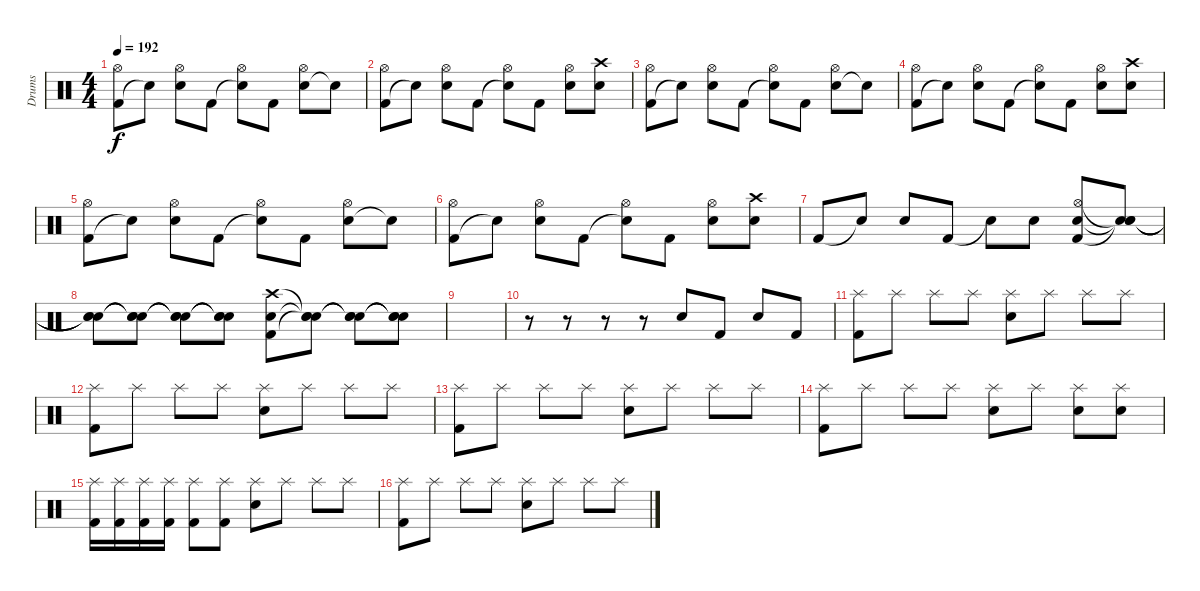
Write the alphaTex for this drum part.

\track ("Drums" "Drums") {instrument percussion}
\staff {score}
\articulation defaults
\ts (4 4)
\tempo 192
\clef neutral
\ks c
("Kick (hit) 2" "Hi-Hat (open)").8{dy f} "Snare (hit)"{t}.8 ("Electric Snare (hit)" "Hi-Hat (open)").8 "Kick (hit) 2".8 ("Snare (hit)"{t} "Hi-Hat (open)").8 "Kick (hit) 2".8 ("Electric Snare (hit)" "Hi-Hat (open)").8 "Electric Snare (hit)"{t}.8 |
("Kick (hit) 2" "Hi-Hat (open)").8 "Snare (hit)"{t}.8 ("Electric Snare (hit)" "Hi-Hat (open)").8 "Kick (hit) 2".8 ("Snare (hit)"{t} "Hi-Hat (open)").8 "Kick (hit) 2".8 ("Electric Snare (hit)" "Hi-Hat (open)").8 ("Electric Snare (hit)" "Crash high (hit)").8 |
("Kick (hit) 2" "Hi-Hat (open)").8 "Snare (hit)"{t}.8 ("Electric Snare (hit)" "Hi-Hat (open)").8 "Kick (hit) 2".8 ("Snare (hit)"{t} "Hi-Hat (open)").8 "Kick (hit) 2".8 ("Electric Snare (hit)" "Hi-Hat (open)").8 "Electric Snare (hit)"{t}.8 |
("Kick (hit) 2" "Hi-Hat (open)").8 "Snare (hit)"{t}.8 ("Electric Snare (hit)" "Hi-Hat (open)").8 "Kick (hit) 2".8 ("Snare (hit)"{t} "Hi-Hat (open)").8 "Kick (hit) 2".8 ("Electric Snare (hit)" "Hi-Hat (open)").8 ("Electric Snare (hit)" "Crash high (hit)").8 |
("Kick (hit) 2" "Hi-Hat (open)").8 "Snare (hit)"{t}.8 ("Electric Snare (hit)" "Hi-Hat (open)").8 "Kick (hit) 2".8 ("Snare (hit)"{t} "Hi-Hat (open)").8 "Kick (hit) 2".8 ("Electric Snare (hit)" "Hi-Hat (open)").8 "Electric Snare (hit)"{t}.8 |
("Kick (hit) 2" "Hi-Hat (open)").8 "Snare (hit)"{t}.8 ("Electric Snare (hit)" "Hi-Hat (open)").8 "Kick (hit) 2".8 ("Snare (hit)"{t} "Hi-Hat (open)").8 "Kick (hit) 2".8 ("Electric Snare (hit)" "Hi-Hat (open)").8 ("Electric Snare (hit)" "Crash high (hit)").8 |
"Kick (hit) 2".8 "Snare (hit)"{t}.8 "Electric Snare (hit)".8 "Kick (hit) 2".8 "Snare (hit)"{t}.8 "Electric Snare (hit)".8 ("Kick (hit) 2" "Snare (hit) 2" "Hi-Hat (open)").8 ("Snare (hit)"{t} "Snare (hit)"{t} "Snare (hit)"{t}).8 |
("Snare (hit)"{t} "Snare (hit)"{t} "Snare (hit)"{t}).8 ("Snare (hit)"{t} "Snare (hit)"{t} "Snare (hit)"{t}).8 ("Snare (hit)"{t} "Snare (hit)"{t} "Snare (hit)"{t}).8 ("Snare (hit)"{t} "Snare (hit)"{t} "Snare (hit)"{t}).8 ("Kick (hit) 2" "Electric Snare (hit)" "Crash high (hit)").8 ("Snare (hit)"{t} "Snare (hit)"{t} "Snare (hit)"{t}).8 ("Snare (hit)"{t} "Snare (hit)"{t} "Snare (hit)"{t}).8 ("Snare (hit)"{t} "Snare (hit)"{t} "Snare (hit)"{t}).8 |
|
r.8 r.8 r.8 r.8 "Snare (hit) 2".8 "Kick (hit) 2".8 "Snare (hit) 2".8 "Kick (hit) 2".8 |
("Splash (hit)" "Kick (hit) 2").8 "Splash (hit)".8 "Splash (hit)".8 "Splash (hit)".8 ("Splash (hit)" "Electric Snare (hit)").8 "Splash (hit)".8 "Splash (hit)".8 "Splash (hit)".8 |
("Splash (hit)" "Kick (hit) 2").8 "Splash (hit)".8 "Splash (hit)".8 "Splash (hit)".8 ("Splash (hit)" "Electric Snare (hit)").8 "Splash (hit)".8 "Splash (hit)".8 "Splash (hit)".8 |
("Splash (hit)" "Kick (hit) 2").8 "Splash (hit)".8 "Splash (hit)".8 "Splash (hit)".8 ("Splash (hit)" "Electric Snare (hit)").8 "Splash (hit)".8 "Splash (hit)".8 "Splash (hit)".8 |
("Splash (hit)" "Kick (hit) 2").8 "Splash (hit)".8 "Splash (hit)".8 "Splash (hit)".8 ("Splash (hit)" "Electric Snare (hit)").8 "Splash (hit)".8 ("Splash (hit)" "Electric Snare (hit)").8 ("Splash (hit)" "Electric Snare (hit)").8 |
("Splash (hit)" "Kick (hit) 2").16 ("Splash (hit)" "Kick (hit) 2").16 ("Splash (hit)" "Kick (hit) 2").16 ("Splash (hit)" "Kick (hit) 2").16 ("Splash (hit)" "Kick (hit) 2").8 ("Splash (hit)" "Kick (hit) 2").8 ("Splash (hit)" "Electric Snare (hit)").8 "Splash (hit)".8 "Splash (hit)".8 "Splash (hit)".8 |
("Splash (hit)" "Kick (hit) 2").8 "Splash (hit)".8 "Splash (hit)".8 "Splash (hit)".8 ("Splash (hit)" "Electric Snare (hit)").8 "Splash (hit)".8 "Splash (hit)".8 "Splash (hit)".8
